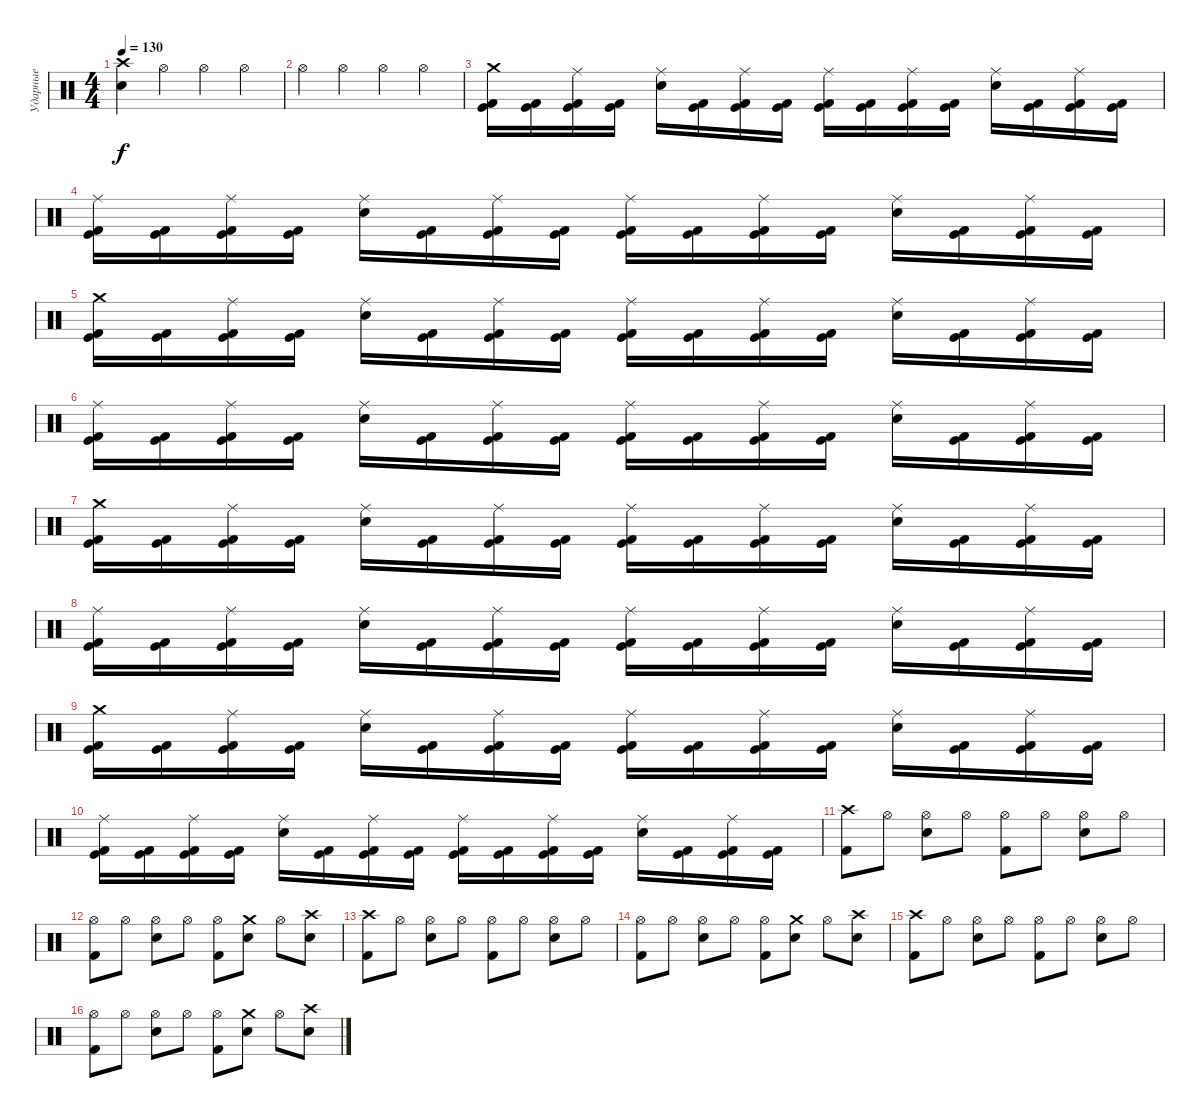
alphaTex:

\track ("Ударные" "Ударные") {instrument percussion}
\staff {score}
\articulation defaults
\ts (4 4)
\tempo 130
\clef neutral
\ks c
("Crash high (hit)" "Electric Snare (hit)").4{dy f} "Hi-Hat (open)".4 "Hi-Hat (open)".4 "Hi-Hat (open)".4 |
"Hi-Hat (open)".4 "Hi-Hat (open)".4 "Hi-Hat (open)".4 "Hi-Hat (open)".4 |
("Crash medium (hit)" "Kick (hit) 2" "Kick (hit)").16 ("Kick (hit) 2" "Kick (hit)").16 ("Ride (middle)" "Kick (hit) 2" "Kick (hit)").16 ("Kick (hit) 2" "Kick (hit)").16 ("Ride (middle)" "Electric Snare (hit)").16 ("Kick (hit) 2" "Kick (hit)").16 ("Ride (middle)" "Kick (hit) 2" "Kick (hit)").16 ("Kick (hit) 2" "Kick (hit)").16 ("Ride (middle)" "Kick (hit) 2" "Kick (hit)").16 ("Kick (hit) 2" "Kick (hit)").16 ("Ride (middle)" "Kick (hit) 2" "Kick (hit)").16 ("Kick (hit) 2" "Kick (hit)").16 ("Ride (middle)" "Electric Snare (hit)").16 ("Kick (hit) 2" "Kick (hit)").16 ("Ride (middle)" "Kick (hit) 2" "Kick (hit)").16 ("Kick (hit) 2" "Kick (hit)").16 |
("Ride (middle)" "Kick (hit) 2" "Kick (hit)").16 ("Kick (hit) 2" "Kick (hit)").16 ("Ride (middle)" "Kick (hit) 2" "Kick (hit)").16 ("Kick (hit) 2" "Kick (hit)").16 ("Ride (middle)" "Electric Snare (hit)").16 ("Kick (hit) 2" "Kick (hit)").16 ("Ride (middle)" "Kick (hit) 2" "Kick (hit)").16 ("Kick (hit) 2" "Kick (hit)").16 ("Ride (middle)" "Kick (hit) 2" "Kick (hit)").16 ("Kick (hit) 2" "Kick (hit)").16 ("Ride (middle)" "Kick (hit) 2" "Kick (hit)").16 ("Kick (hit) 2" "Kick (hit)").16 ("Ride (middle)" "Electric Snare (hit)").16 ("Kick (hit) 2" "Kick (hit)").16 ("Ride (middle)" "Kick (hit) 2" "Kick (hit)").16 ("Kick (hit) 2" "Kick (hit)").16 |
("Crash medium (hit)" "Kick (hit) 2" "Kick (hit)").16 ("Kick (hit) 2" "Kick (hit)").16 ("Ride (middle)" "Kick (hit) 2" "Kick (hit)").16 ("Kick (hit) 2" "Kick (hit)").16 ("Ride (middle)" "Electric Snare (hit)").16 ("Kick (hit) 2" "Kick (hit)").16 ("Ride (middle)" "Kick (hit) 2" "Kick (hit)").16 ("Kick (hit) 2" "Kick (hit)").16 ("Ride (middle)" "Kick (hit) 2" "Kick (hit)").16 ("Kick (hit) 2" "Kick (hit)").16 ("Ride (middle)" "Kick (hit) 2" "Kick (hit)").16 ("Kick (hit) 2" "Kick (hit)").16 ("Ride (middle)" "Electric Snare (hit)").16 ("Kick (hit) 2" "Kick (hit)").16 ("Ride (middle)" "Kick (hit) 2" "Kick (hit)").16 ("Kick (hit) 2" "Kick (hit)").16 |
("Ride (middle)" "Kick (hit) 2" "Kick (hit)").16 ("Kick (hit) 2" "Kick (hit)").16 ("Ride (middle)" "Kick (hit) 2" "Kick (hit)").16 ("Kick (hit) 2" "Kick (hit)").16 ("Ride (middle)" "Electric Snare (hit)").16 ("Kick (hit) 2" "Kick (hit)").16 ("Ride (middle)" "Kick (hit) 2" "Kick (hit)").16 ("Kick (hit) 2" "Kick (hit)").16 ("Ride (middle)" "Kick (hit) 2" "Kick (hit)").16 ("Kick (hit) 2" "Kick (hit)").16 ("Ride (middle)" "Kick (hit) 2" "Kick (hit)").16 ("Kick (hit) 2" "Kick (hit)").16 ("Ride (middle)" "Electric Snare (hit)").16 ("Kick (hit) 2" "Kick (hit)").16 ("Ride (middle)" "Kick (hit) 2" "Kick (hit)").16 ("Kick (hit) 2" "Kick (hit)").16 |
("Crash medium (hit)" "Kick (hit) 2" "Kick (hit)").16 ("Kick (hit) 2" "Kick (hit)").16 ("Ride (middle)" "Kick (hit) 2" "Kick (hit)").16 ("Kick (hit) 2" "Kick (hit)").16 ("Ride (middle)" "Electric Snare (hit)").16 ("Kick (hit) 2" "Kick (hit)").16 ("Ride (middle)" "Kick (hit) 2" "Kick (hit)").16 ("Kick (hit) 2" "Kick (hit)").16 ("Ride (middle)" "Kick (hit) 2" "Kick (hit)").16 ("Kick (hit) 2" "Kick (hit)").16 ("Ride (middle)" "Kick (hit) 2" "Kick (hit)").16 ("Kick (hit) 2" "Kick (hit)").16 ("Ride (middle)" "Electric Snare (hit)").16 ("Kick (hit) 2" "Kick (hit)").16 ("Ride (middle)" "Kick (hit) 2" "Kick (hit)").16 ("Kick (hit) 2" "Kick (hit)").16 |
("Ride (middle)" "Kick (hit) 2" "Kick (hit)").16 ("Kick (hit) 2" "Kick (hit)").16 ("Ride (middle)" "Kick (hit) 2" "Kick (hit)").16 ("Kick (hit) 2" "Kick (hit)").16 ("Ride (middle)" "Electric Snare (hit)").16 ("Kick (hit) 2" "Kick (hit)").16 ("Ride (middle)" "Kick (hit) 2" "Kick (hit)").16 ("Kick (hit) 2" "Kick (hit)").16 ("Ride (middle)" "Kick (hit) 2" "Kick (hit)").16 ("Kick (hit) 2" "Kick (hit)").16 ("Ride (middle)" "Kick (hit) 2" "Kick (hit)").16 ("Kick (hit) 2" "Kick (hit)").16 ("Ride (middle)" "Electric Snare (hit)").16 ("Kick (hit) 2" "Kick (hit)").16 ("Ride (middle)" "Kick (hit) 2" "Kick (hit)").16 ("Kick (hit) 2" "Kick (hit)").16 |
("Crash medium (hit)" "Kick (hit) 2" "Kick (hit)").16 ("Kick (hit) 2" "Kick (hit)").16 ("Ride (middle)" "Kick (hit) 2" "Kick (hit)").16 ("Kick (hit) 2" "Kick (hit)").16 ("Ride (middle)" "Electric Snare (hit)").16 ("Kick (hit) 2" "Kick (hit)").16 ("Ride (middle)" "Kick (hit) 2" "Kick (hit)").16 ("Kick (hit) 2" "Kick (hit)").16 ("Ride (middle)" "Kick (hit) 2" "Kick (hit)").16 ("Kick (hit) 2" "Kick (hit)").16 ("Ride (middle)" "Kick (hit) 2" "Kick (hit)").16 ("Kick (hit) 2" "Kick (hit)").16 ("Ride (middle)" "Electric Snare (hit)").16 ("Kick (hit) 2" "Kick (hit)").16 ("Ride (middle)" "Kick (hit) 2" "Kick (hit)").16 ("Kick (hit) 2" "Kick (hit)").16 |
("Ride (middle)" "Kick (hit) 2" "Kick (hit)").16 ("Kick (hit) 2" "Kick (hit)").16 ("Ride (middle)" "Kick (hit) 2" "Kick (hit)").16 ("Kick (hit) 2" "Kick (hit)").16 ("Ride (middle)" "Electric Snare (hit)").16 ("Kick (hit) 2" "Kick (hit)").16 ("Ride (middle)" "Kick (hit) 2" "Kick (hit)").16 ("Kick (hit) 2" "Kick (hit)").16 ("Ride (middle)" "Kick (hit) 2" "Kick (hit)").16 ("Kick (hit) 2" "Kick (hit)").16 ("Ride (middle)" "Kick (hit) 2" "Kick (hit)").16 ("Kick (hit) 2" "Kick (hit)").16 ("Ride (middle)" "Electric Snare (hit)").16 ("Kick (hit) 2" "Kick (hit)").16 ("Ride (middle)" "Kick (hit) 2" "Kick (hit)").16 ("Kick (hit) 2" "Kick (hit)").16 |
("Crash high (hit)" "Kick (hit) 2").8 "Hi-Hat (open)".8 ("Hi-Hat (open)" "Electric Snare (hit)").8 "Hi-Hat (open)".8 ("Hi-Hat (open)" "Kick (hit) 2").8 "Hi-Hat (open)".8 ("Hi-Hat (open)" "Electric Snare (hit)").8 "Hi-Hat (open)".8 |
("Hi-Hat (open)" "Kick (hit) 2").8 "Hi-Hat (open)".8 ("Hi-Hat (open)" "Electric Snare (hit)").8 "Hi-Hat (open)".8 ("Hi-Hat (open)" "Kick (hit) 2").8 ("Crash medium (hit)" "Electric Snare (hit)").8 "Hi-Hat (open)".8 ("Crash high (hit)" "Electric Snare (hit)").8 |
("Crash high (hit)" "Kick (hit) 2").8 "Hi-Hat (open)".8 ("Hi-Hat (open)" "Electric Snare (hit)").8 "Hi-Hat (open)".8 ("Hi-Hat (open)" "Kick (hit) 2").8 "Hi-Hat (open)".8 ("Hi-Hat (open)" "Electric Snare (hit)").8 "Hi-Hat (open)".8 |
("Hi-Hat (open)" "Kick (hit) 2").8 "Hi-Hat (open)".8 ("Hi-Hat (open)" "Electric Snare (hit)").8 "Hi-Hat (open)".8 ("Hi-Hat (open)" "Kick (hit) 2").8 ("Crash medium (hit)" "Electric Snare (hit)").8 "Hi-Hat (open)".8 ("Crash high (hit)" "Electric Snare (hit)").8 |
("Crash high (hit)" "Kick (hit) 2").8 "Hi-Hat (open)".8 ("Hi-Hat (open)" "Electric Snare (hit)").8 "Hi-Hat (open)".8 ("Hi-Hat (open)" "Kick (hit) 2").8 "Hi-Hat (open)".8 ("Hi-Hat (open)" "Electric Snare (hit)").8 "Hi-Hat (open)".8 |
("Hi-Hat (open)" "Kick (hit) 2").8 "Hi-Hat (open)".8 ("Hi-Hat (open)" "Electric Snare (hit)").8 "Hi-Hat (open)".8 ("Hi-Hat (open)" "Kick (hit) 2").8 ("Crash medium (hit)" "Electric Snare (hit)").8 "Hi-Hat (open)".8 ("Crash high (hit)" "Electric Snare (hit)").8
